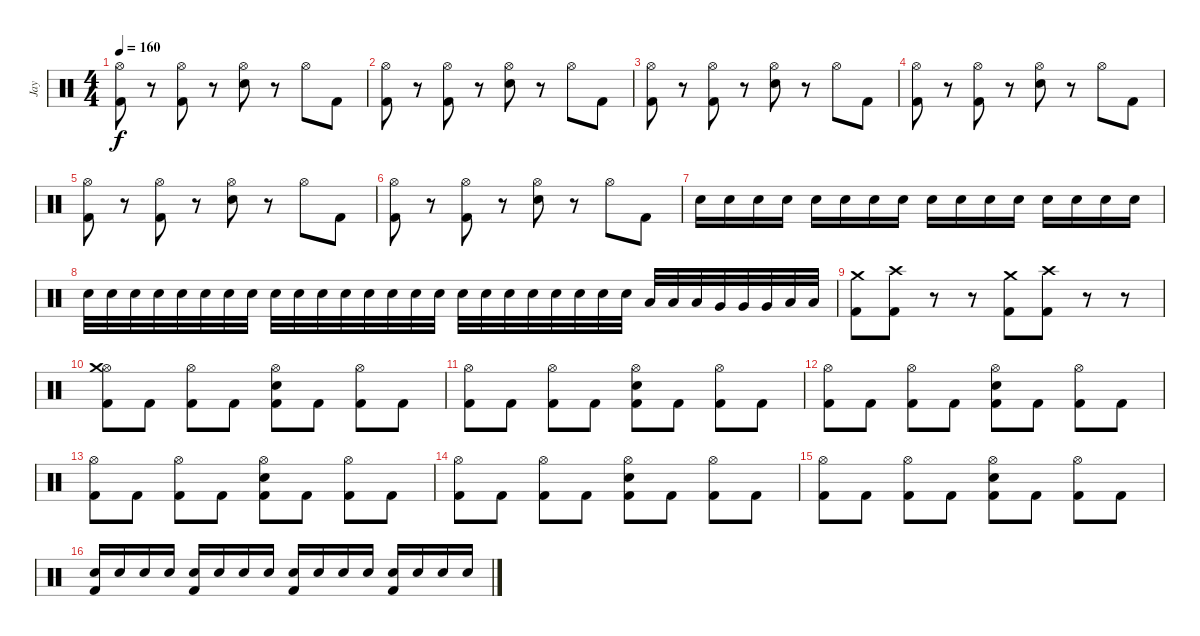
\track ("Jay" "Jay") {instrument percussion}
\staff {score}
\articulation defaults
\ts (4 4)
\tempo 160
\clef neutral
\ks c
("Hi-Hat (open)" "Kick (hit) 2").8{dy f} r.8 ("Hi-Hat (open)" "Kick (hit) 2").8 r.8 ("Hi-Hat (open)" "Electric Snare (hit)").8 r.8 "Hi-Hat (open)".8 "Kick (hit) 2".8 |
("Hi-Hat (open)" "Kick (hit) 2").8 r.8 ("Hi-Hat (open)" "Kick (hit) 2").8 r.8 ("Hi-Hat (open)" "Electric Snare (hit)").8 r.8 "Hi-Hat (open)".8 "Kick (hit) 2".8 |
("Hi-Hat (open)" "Kick (hit) 2").8 r.8 ("Hi-Hat (open)" "Kick (hit) 2").8 r.8 ("Hi-Hat (open)" "Electric Snare (hit)").8 r.8 "Hi-Hat (open)".8 "Kick (hit) 2".8 |
("Hi-Hat (open)" "Kick (hit) 2").8 r.8 ("Hi-Hat (open)" "Kick (hit) 2").8 r.8 ("Hi-Hat (open)" "Electric Snare (hit)").8 r.8 "Hi-Hat (open)".8 "Kick (hit) 2".8 |
("Hi-Hat (open)" "Kick (hit) 2").8 r.8 ("Hi-Hat (open)" "Kick (hit) 2").8 r.8 ("Hi-Hat (open)" "Electric Snare (hit)").8 r.8 "Hi-Hat (open)".8 "Kick (hit) 2".8 |
("Hi-Hat (open)" "Kick (hit) 2").8 r.8 ("Hi-Hat (open)" "Kick (hit) 2").8 r.8 ("Hi-Hat (open)" "Electric Snare (hit)").8 r.8 "Hi-Hat (open)".8 "Kick (hit) 2".8 |
"Electric Snare (hit)".16 "Electric Snare (hit)".16 "Electric Snare (hit)".16 "Electric Snare (hit)".16 "Electric Snare (hit)".16 "Electric Snare (hit)".16 "Electric Snare (hit)".16 "Electric Snare (hit)".16 "Electric Snare (hit)".16 "Electric Snare (hit)".16 "Electric Snare (hit)".16 "Electric Snare (hit)".16 "Electric Snare (hit)".16 "Electric Snare (hit)".16 "Electric Snare (hit)".16 "Electric Snare (hit)".16 |
"Electric Snare (hit)".32 "Electric Snare (hit)".32 "Electric Snare (hit)".32 "Electric Snare (hit)".32 "Electric Snare (hit)".32 "Electric Snare (hit)".32 "Electric Snare (hit)".32 "Electric Snare (hit)".32 "Electric Snare (hit)".32 "Electric Snare (hit)".32 "Electric Snare (hit)".32 "Electric Snare (hit)".32 "Electric Snare (hit)".32 "Electric Snare (hit)".32 "Electric Snare (hit)".32 "Electric Snare (hit)".32 "Electric Snare (hit)".32 "Electric Snare (hit)".32 "Electric Snare (hit)".32 "Electric Snare (hit)".32 "Electric Snare (hit)".32 "Electric Snare (hit)".32 "Electric Snare (hit)".32 "Electric Snare (hit)".32 "Low Floor Tom (hit)".32 "Low Floor Tom (hit)".32 "Low Floor Tom (hit)".32 "Very Low Tom (hit)".32 "Very Low Tom (hit)".32 "Very Low Tom (hit)".32 "Low Tom (hit)".32 "Low Tom (hit)".32 |
("Crash medium (hit)" "Kick (hit) 2").8 ("Crash high (hit)" "Kick (hit) 2").8 r.8 r.8 ("Crash medium (hit)" "Kick (hit) 2").8 ("Crash high (hit)" "Kick (hit) 2").8 r.8 r.8 |
("Hi-Hat (open)" "Crash medium (hit)" "Kick (hit) 2").8 "Kick (hit) 2".8 ("Hi-Hat (open)" "Kick (hit) 2").8 "Kick (hit) 2".8 ("Hi-Hat (open)" "Electric Snare (hit)" "Kick (hit) 2").8 "Kick (hit) 2".8 ("Hi-Hat (open)" "Kick (hit) 2").8 "Kick (hit) 2".8 |
("Hi-Hat (open)" "Kick (hit) 2").8 "Kick (hit) 2".8 ("Hi-Hat (open)" "Kick (hit) 2").8 "Kick (hit) 2".8 ("Hi-Hat (open)" "Electric Snare (hit)" "Kick (hit) 2").8 "Kick (hit) 2".8 ("Hi-Hat (open)" "Kick (hit) 2").8 "Kick (hit) 2".8 |
("Hi-Hat (open)" "Kick (hit) 2").8 "Kick (hit) 2".8 ("Hi-Hat (open)" "Kick (hit) 2").8 "Kick (hit) 2".8 ("Hi-Hat (open)" "Electric Snare (hit)" "Kick (hit) 2").8 "Kick (hit) 2".8 ("Hi-Hat (open)" "Kick (hit) 2").8 "Kick (hit) 2".8 |
("Hi-Hat (open)" "Kick (hit) 2").8 "Kick (hit) 2".8 ("Hi-Hat (open)" "Kick (hit) 2").8 "Kick (hit) 2".8 ("Hi-Hat (open)" "Electric Snare (hit)" "Kick (hit) 2").8 "Kick (hit) 2".8 ("Hi-Hat (open)" "Kick (hit) 2").8 "Kick (hit) 2".8 |
("Hi-Hat (open)" "Kick (hit) 2").8 "Kick (hit) 2".8 ("Hi-Hat (open)" "Kick (hit) 2").8 "Kick (hit) 2".8 ("Hi-Hat (open)" "Electric Snare (hit)" "Kick (hit) 2").8 "Kick (hit) 2".8 ("Hi-Hat (open)" "Kick (hit) 2").8 "Kick (hit) 2".8 |
("Hi-Hat (open)" "Kick (hit) 2").8 "Kick (hit) 2".8 ("Hi-Hat (open)" "Kick (hit) 2").8 "Kick (hit) 2".8 ("Hi-Hat (open)" "Electric Snare (hit)" "Kick (hit) 2").8 "Kick (hit) 2".8 ("Hi-Hat (open)" "Kick (hit) 2").8 "Kick (hit) 2".8 |
("Electric Snare (hit)" "Kick (hit) 2").16 "Electric Snare (hit)".16 "Electric Snare (hit)".16 "Electric Snare (hit)".16 ("Electric Snare (hit)" "Kick (hit) 2").16 "Electric Snare (hit)".16 "Electric Snare (hit)".16 "Electric Snare (hit)".16 ("Electric Snare (hit)" "Kick (hit) 2").16 "Electric Snare (hit)".16 "Electric Snare (hit)".16 "Electric Snare (hit)".16 ("Electric Snare (hit)" "Kick (hit) 2").16 "Electric Snare (hit)".16 "Electric Snare (hit)".16 "Electric Snare (hit)".16
